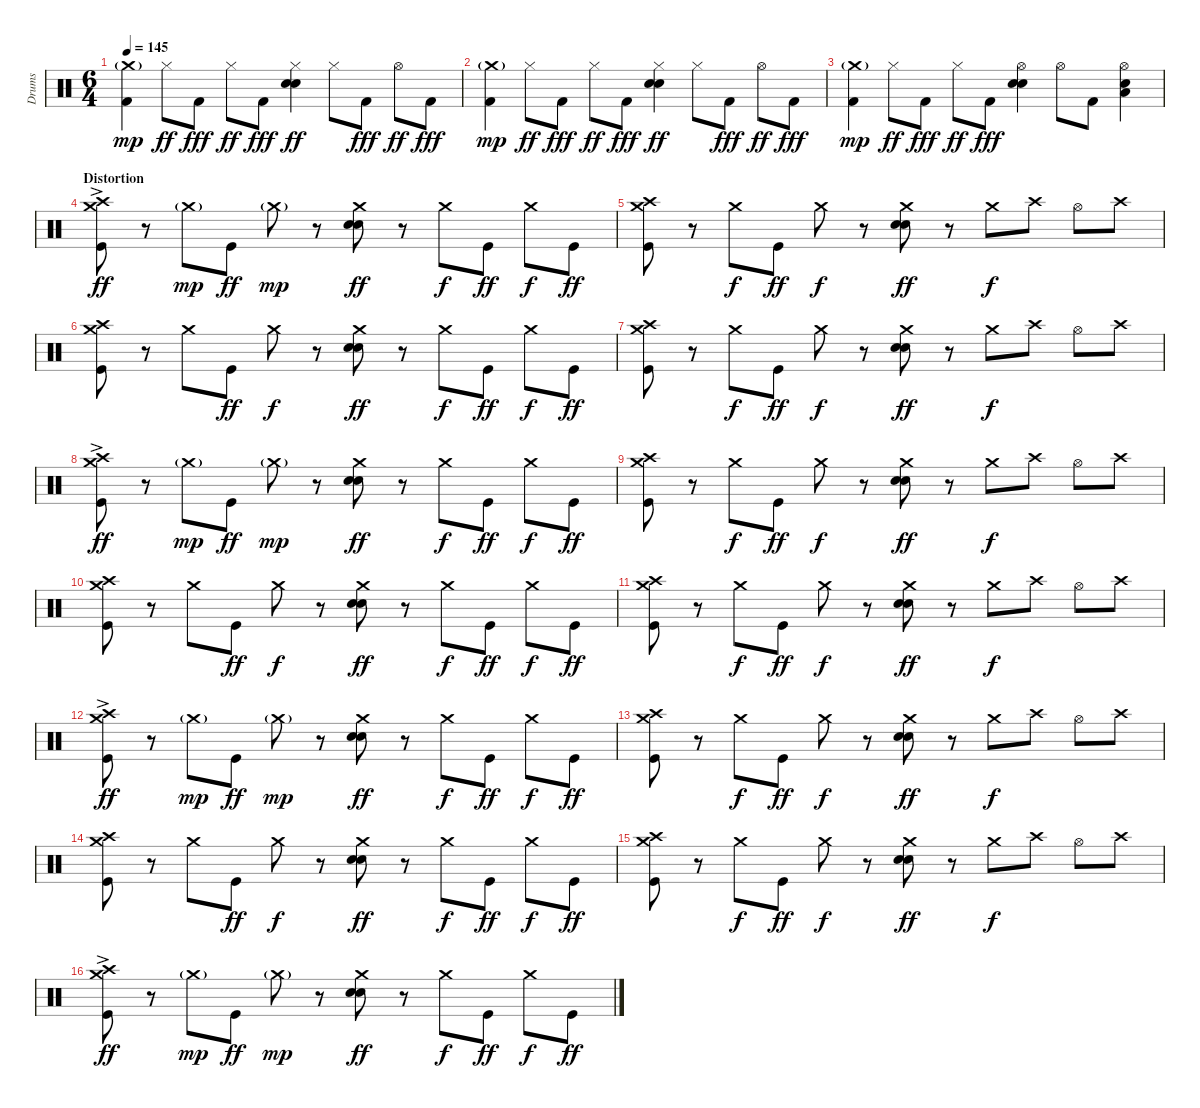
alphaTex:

\track ("Drums" "Drums") {instrument percussion}
\staff {score}
\articulation defaults
\ts (6 4)
\tempo 145
\clef neutral
\ks c
("Kick (hit) 2" "Crash medium (hit)"{g}).4{dy mp} "Hi-Hat (closed)".8{dy ff} "Kick (hit) 2".8{dy fff} "Hi-Hat (closed)".8{dy ff} "Kick (hit) 2".8{dy fff} ("Snare (hit) 2" "Snare (hit) 2" "Hi-Hat (closed)").4{dy ff} "Hi-Hat (closed)".8 "Kick (hit) 2".8{dy fff} "Hi-Hat (open)".8{dy ff} "Kick (hit) 2".8{dy fff} |
("Kick (hit) 2" "Crash medium (hit)"{g}).4{dy mp} "Hi-Hat (closed)".8{dy ff} "Kick (hit) 2".8{dy fff} "Hi-Hat (closed)".8{dy ff} "Kick (hit) 2".8{dy fff} ("Snare (hit) 2" "Snare (hit) 2" "Hi-Hat (closed)").4{dy ff} "Hi-Hat (closed)".8 "Kick (hit) 2".8{dy fff} "Hi-Hat (open)".8{dy ff} "Kick (hit) 2".8{dy fff} |
("Kick (hit) 2" "Crash medium (hit)"{g}).4{dy mp} "Hi-Hat (closed)".8{dy ff} "Kick (hit) 2".8{dy fff} "Hi-Hat (closed)".8{dy ff} "Kick (hit) 2".8{dy fff} ("Snare (hit) 2" "Snare (hit) 2" "Hi-Hat (open)").4 "Hi-Hat (open)".8 "Kick (hit) 2".8 ("Electric Snare (hit)" "Low Floor Tom (hit)" "Hi-Hat (open)").4 |
\section ("" "Distortion")
("Kick (hit)" "Crash high (hit)" "Crash medium (hit)"{ac}).8{dy ff} r.8 "Crash medium (hit)"{g}.8{dy mp} "Kick (hit)".8{dy ff} "Crash medium (hit)"{g}.8{dy mp} r.8 ("Electric Snare (hit)" "Electric Snare (hit)" "Crash medium (hit)").8{dy ff} r.8 "Crash medium (hit)".8{dy f} "Kick (hit)".8{dy ff} "Crash medium (hit)".8{dy f} "Kick (hit)".8{dy ff} |
("Kick (hit)" "Crash high (hit)" "Crash medium (hit)").8 r.8 "Crash medium (hit)".8{dy f} "Kick (hit)".8{dy ff} "Crash medium (hit)".8{dy f} r.8 ("Electric Snare (hit)" "Electric Snare (hit)" "Crash medium (hit)").8{dy ff} r.8 "Crash medium (hit)".8{dy f} "Crash high (hit)".8 "Hi-Hat (open)".8 "Crash high (hit)".8 |
("Kick (hit)" "Crash high (hit)" "Crash medium (hit)").8 r.8 "Crash medium (hit)".8 "Kick (hit)".8{dy ff} "Crash medium (hit)".8{dy f} r.8 ("Electric Snare (hit)" "Electric Snare (hit)" "Crash medium (hit)").8{dy ff} r.8 "Crash medium (hit)".8{dy f} "Kick (hit)".8{dy ff} "Crash medium (hit)".8{dy f} "Kick (hit)".8{dy ff} |
("Kick (hit)" "Crash high (hit)" "Crash medium (hit)").8 r.8 "Crash medium (hit)".8{dy f} "Kick (hit)".8{dy ff} "Crash medium (hit)".8{dy f} r.8 ("Electric Snare (hit)" "Electric Snare (hit)" "Crash medium (hit)").8{dy ff} r.8 "Crash medium (hit)".8{dy f} "Crash high (hit)".8 "Hi-Hat (open)".8 "Crash high (hit)".8 |
("Kick (hit)" "Crash high (hit)" "Crash medium (hit)"{ac}).8{dy ff} r.8 "Crash medium (hit)"{g}.8{dy mp} "Kick (hit)".8{dy ff} "Crash medium (hit)"{g}.8{dy mp} r.8 ("Electric Snare (hit)" "Electric Snare (hit)" "Crash medium (hit)").8{dy ff} r.8 "Crash medium (hit)".8{dy f} "Kick (hit)".8{dy ff} "Crash medium (hit)".8{dy f} "Kick (hit)".8{dy ff} |
("Kick (hit)" "Crash high (hit)" "Crash medium (hit)").8 r.8 "Crash medium (hit)".8{dy f} "Kick (hit)".8{dy ff} "Crash medium (hit)".8{dy f} r.8 ("Electric Snare (hit)" "Electric Snare (hit)" "Crash medium (hit)").8{dy ff} r.8 "Crash medium (hit)".8{dy f} "Crash high (hit)".8 "Hi-Hat (open)".8 "Crash high (hit)".8 |
("Kick (hit)" "Crash high (hit)" "Crash medium (hit)").8 r.8 "Crash medium (hit)".8 "Kick (hit)".8{dy ff} "Crash medium (hit)".8{dy f} r.8 ("Electric Snare (hit)" "Electric Snare (hit)" "Crash medium (hit)").8{dy ff} r.8 "Crash medium (hit)".8{dy f} "Kick (hit)".8{dy ff} "Crash medium (hit)".8{dy f} "Kick (hit)".8{dy ff} |
("Kick (hit)" "Crash high (hit)" "Crash medium (hit)").8 r.8 "Crash medium (hit)".8{dy f} "Kick (hit)".8{dy ff} "Crash medium (hit)".8{dy f} r.8 ("Electric Snare (hit)" "Electric Snare (hit)" "Crash medium (hit)").8{dy ff} r.8 "Crash medium (hit)".8{dy f} "Crash high (hit)".8 "Hi-Hat (open)".8 "Crash high (hit)".8 |
("Kick (hit)" "Crash high (hit)" "Crash medium (hit)"{ac}).8{dy ff} r.8 "Crash medium (hit)"{g}.8{dy mp} "Kick (hit)".8{dy ff} "Crash medium (hit)"{g}.8{dy mp} r.8 ("Electric Snare (hit)" "Electric Snare (hit)" "Crash medium (hit)").8{dy ff} r.8 "Crash medium (hit)".8{dy f} "Kick (hit)".8{dy ff} "Crash medium (hit)".8{dy f} "Kick (hit)".8{dy ff} |
("Kick (hit)" "Crash high (hit)" "Crash medium (hit)").8 r.8 "Crash medium (hit)".8{dy f} "Kick (hit)".8{dy ff} "Crash medium (hit)".8{dy f} r.8 ("Electric Snare (hit)" "Electric Snare (hit)" "Crash medium (hit)").8{dy ff} r.8 "Crash medium (hit)".8{dy f} "Crash high (hit)".8 "Hi-Hat (open)".8 "Crash high (hit)".8 |
("Kick (hit)" "Crash high (hit)" "Crash medium (hit)").8 r.8 "Crash medium (hit)".8 "Kick (hit)".8{dy ff} "Crash medium (hit)".8{dy f} r.8 ("Electric Snare (hit)" "Electric Snare (hit)" "Crash medium (hit)").8{dy ff} r.8 "Crash medium (hit)".8{dy f} "Kick (hit)".8{dy ff} "Crash medium (hit)".8{dy f} "Kick (hit)".8{dy ff} |
("Kick (hit)" "Crash high (hit)" "Crash medium (hit)").8 r.8 "Crash medium (hit)".8{dy f} "Kick (hit)".8{dy ff} "Crash medium (hit)".8{dy f} r.8 ("Electric Snare (hit)" "Electric Snare (hit)" "Crash medium (hit)").8{dy ff} r.8 "Crash medium (hit)".8{dy f} "Crash high (hit)".8 "Hi-Hat (open)".8 "Crash high (hit)".8 |
("Kick (hit)" "Crash high (hit)" "Crash medium (hit)"{ac}).8{dy ff} r.8 "Crash medium (hit)"{g}.8{dy mp} "Kick (hit)".8{dy ff} "Crash medium (hit)"{g}.8{dy mp} r.8 ("Electric Snare (hit)" "Electric Snare (hit)" "Crash medium (hit)").8{dy ff} r.8 "Crash medium (hit)".8{dy f} "Kick (hit)".8{dy ff} "Crash medium (hit)".8{dy f} "Kick (hit)".8{dy ff}
